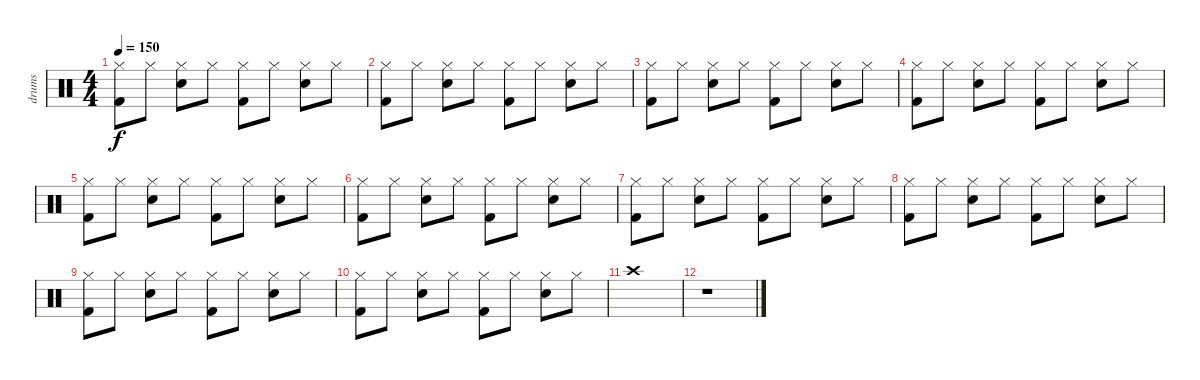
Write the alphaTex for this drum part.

\track ("drums" "drums") {instrument percussion}
\staff {score}
\articulation defaults
\ts (4 4)
\tempo 150
\clef neutral
\ks c
("Hi-Hat (closed)" "Kick (hit) 2").8{dy f} "Hi-Hat (closed)".8 ("Hi-Hat (closed)" "Electric Snare (hit)").8 "Hi-Hat (closed)".8 ("Hi-Hat (closed)" "Kick (hit) 2").8 "Hi-Hat (closed)".8 ("Hi-Hat (closed)" "Electric Snare (hit)").8 "Hi-Hat (closed)".8 |
("Hi-Hat (closed)" "Kick (hit) 2").8 "Hi-Hat (closed)".8 ("Hi-Hat (closed)" "Electric Snare (hit)").8 "Hi-Hat (closed)".8 ("Hi-Hat (closed)" "Kick (hit) 2").8 "Hi-Hat (closed)".8 ("Hi-Hat (closed)" "Electric Snare (hit)").8 "Hi-Hat (closed)".8 |
("Hi-Hat (closed)" "Kick (hit) 2").8 "Hi-Hat (closed)".8 ("Hi-Hat (closed)" "Electric Snare (hit)").8 "Hi-Hat (closed)".8 ("Hi-Hat (closed)" "Kick (hit) 2").8 "Hi-Hat (closed)".8 ("Hi-Hat (closed)" "Electric Snare (hit)").8 "Hi-Hat (closed)".8 |
("Hi-Hat (closed)" "Kick (hit) 2").8 "Hi-Hat (closed)".8 ("Hi-Hat (closed)" "Electric Snare (hit)").8 "Hi-Hat (closed)".8 ("Hi-Hat (closed)" "Kick (hit) 2").8 "Hi-Hat (closed)".8 ("Hi-Hat (closed)" "Electric Snare (hit)").8 "Hi-Hat (closed)".8 |
("Hi-Hat (closed)" "Kick (hit) 2").8 "Hi-Hat (closed)".8 ("Hi-Hat (closed)" "Electric Snare (hit)").8 "Hi-Hat (closed)".8 ("Hi-Hat (closed)" "Kick (hit) 2").8 "Hi-Hat (closed)".8 ("Hi-Hat (closed)" "Electric Snare (hit)").8 "Hi-Hat (closed)".8 |
("Hi-Hat (closed)" "Kick (hit) 2").8 "Hi-Hat (closed)".8 ("Hi-Hat (closed)" "Electric Snare (hit)").8 "Hi-Hat (closed)".8 ("Hi-Hat (closed)" "Kick (hit) 2").8 "Hi-Hat (closed)".8 ("Hi-Hat (closed)" "Electric Snare (hit)").8 "Hi-Hat (closed)".8 |
("Hi-Hat (closed)" "Kick (hit) 2").8 "Hi-Hat (closed)".8 ("Hi-Hat (closed)" "Electric Snare (hit)").8 "Hi-Hat (closed)".8 ("Hi-Hat (closed)" "Kick (hit) 2").8 "Hi-Hat (closed)".8 ("Hi-Hat (closed)" "Electric Snare (hit)").8 "Hi-Hat (closed)".8 |
("Hi-Hat (closed)" "Kick (hit) 2").8 "Hi-Hat (closed)".8 ("Hi-Hat (closed)" "Electric Snare (hit)").8 "Hi-Hat (closed)".8 ("Hi-Hat (closed)" "Kick (hit) 2").8 "Hi-Hat (closed)".8 ("Hi-Hat (closed)" "Electric Snare (hit)").8 "Hi-Hat (closed)".8 |
("Hi-Hat (closed)" "Kick (hit) 2").8 "Hi-Hat (closed)".8 ("Hi-Hat (closed)" "Electric Snare (hit)").8 "Hi-Hat (closed)".8 ("Hi-Hat (closed)" "Kick (hit) 2").8 "Hi-Hat (closed)".8 ("Hi-Hat (closed)" "Electric Snare (hit)").8 "Hi-Hat (closed)".8 |
("Hi-Hat (closed)" "Kick (hit) 2").8 "Hi-Hat (closed)".8 ("Hi-Hat (closed)" "Electric Snare (hit)").8 "Hi-Hat (closed)".8 ("Hi-Hat (closed)" "Kick (hit) 2").8 "Hi-Hat (closed)".8 ("Hi-Hat (closed)" "Electric Snare (hit)").8 "Hi-Hat (closed)".8 |
"Crash high (hit)".1 |
r.1
